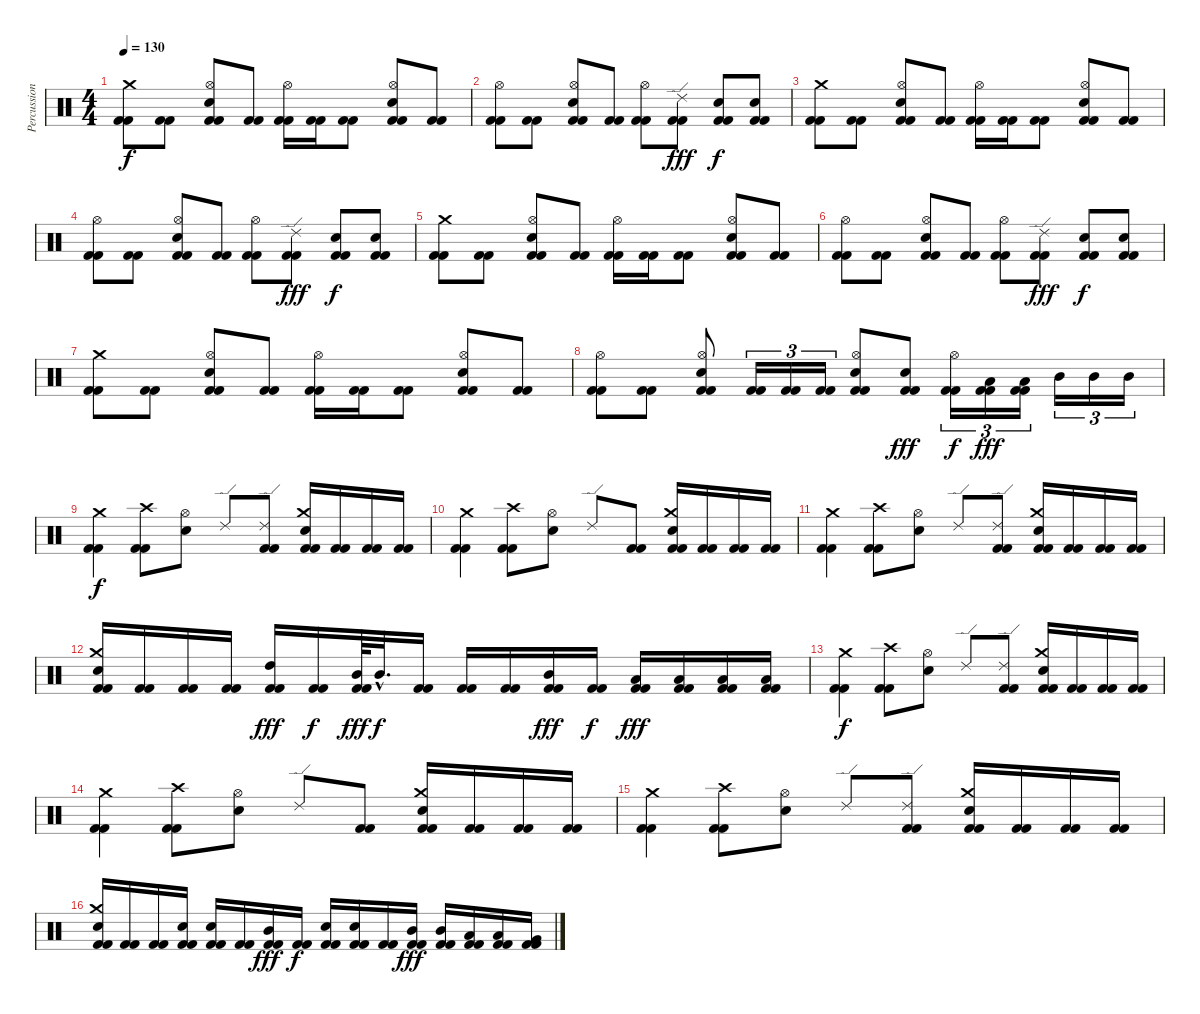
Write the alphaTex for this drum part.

\track ("Percussion" "Percussion") {instrument percussion}
\staff {score}
\articulation defaults
\ts (4 4)
\tempo 130
\clef neutral
\ks c
("Kick (hit) 2" "Kick (hit) 2" "Crash medium (hit)").8{dy f} ("Kick (hit) 2" "Kick (hit) 2").8 ("Kick (hit) 2" "Kick (hit) 2" "Hi-Hat (open)" "Electric Snare (hit)").8 ("Kick (hit) 2" "Kick (hit) 2").8 ("Kick (hit) 2" "Kick (hit) 2" "Hi-Hat (open)").16 ("Kick (hit) 2" "Kick (hit) 2").16 ("Kick (hit) 2" "Kick (hit) 2").8 ("Kick (hit) 2" "Kick (hit) 2" "Hi-Hat (open)" "Electric Snare (hit)").8 ("Kick (hit) 2" "Kick (hit) 2").8 |
("Kick (hit) 2" "Kick (hit) 2" "Hi-Hat (open)").8 ("Kick (hit) 2" "Kick (hit) 2").8 ("Kick (hit) 2" "Kick (hit) 2" "Hi-Hat (open)" "Electric Snare (hit)").8 ("Kick (hit) 2" "Kick (hit) 2").8 ("Kick (hit) 2" "Kick (hit) 2" "Hi-Hat (open)").8 ("Kick (hit) 2" "Kick (hit) 2" "Ride (edge) 2").8{dy fff} ("Kick (hit) 2" "Kick (hit) 2" "Electric Snare (hit)").8{dy f} ("Kick (hit) 2" "Kick (hit) 2" "Electric Snare (hit)").8 |
("Kick (hit) 2" "Kick (hit) 2" "Crash medium (hit)").8 ("Kick (hit) 2" "Kick (hit) 2").8 ("Kick (hit) 2" "Kick (hit) 2" "Hi-Hat (open)" "Electric Snare (hit)").8 ("Kick (hit) 2" "Kick (hit) 2").8 ("Kick (hit) 2" "Kick (hit) 2" "Hi-Hat (open)").16 ("Kick (hit) 2" "Kick (hit) 2").16 ("Kick (hit) 2" "Kick (hit) 2").8 ("Kick (hit) 2" "Kick (hit) 2" "Hi-Hat (open)" "Electric Snare (hit)").8 ("Kick (hit) 2" "Kick (hit) 2").8 |
("Kick (hit) 2" "Kick (hit) 2" "Hi-Hat (open)").8 ("Kick (hit) 2" "Kick (hit) 2").8 ("Kick (hit) 2" "Kick (hit) 2" "Hi-Hat (open)" "Electric Snare (hit)").8 ("Kick (hit) 2" "Kick (hit) 2").8 ("Kick (hit) 2" "Kick (hit) 2" "Hi-Hat (open)").8 ("Kick (hit) 2" "Kick (hit) 2" "Ride (edge) 2").8{dy fff} ("Kick (hit) 2" "Kick (hit) 2" "Electric Snare (hit)").8{dy f} ("Kick (hit) 2" "Kick (hit) 2" "Electric Snare (hit)").8 |
("Kick (hit) 2" "Kick (hit) 2" "Crash medium (hit)").8 ("Kick (hit) 2" "Kick (hit) 2").8 ("Kick (hit) 2" "Kick (hit) 2" "Hi-Hat (open)" "Electric Snare (hit)").8 ("Kick (hit) 2" "Kick (hit) 2").8 ("Kick (hit) 2" "Kick (hit) 2" "Hi-Hat (open)").16 ("Kick (hit) 2" "Kick (hit) 2").16 ("Kick (hit) 2" "Kick (hit) 2").8 ("Kick (hit) 2" "Kick (hit) 2" "Hi-Hat (open)" "Electric Snare (hit)").8 ("Kick (hit) 2" "Kick (hit) 2").8 |
("Kick (hit) 2" "Kick (hit) 2" "Hi-Hat (open)").8 ("Kick (hit) 2" "Kick (hit) 2").8 ("Kick (hit) 2" "Kick (hit) 2" "Hi-Hat (open)" "Electric Snare (hit)").8 ("Kick (hit) 2" "Kick (hit) 2").8 ("Kick (hit) 2" "Kick (hit) 2" "Hi-Hat (open)").8 ("Kick (hit) 2" "Kick (hit) 2" "Ride (edge) 2").8{dy fff} ("Kick (hit) 2" "Kick (hit) 2" "Electric Snare (hit)").8{dy f} ("Kick (hit) 2" "Kick (hit) 2" "Electric Snare (hit)").8 |
("Kick (hit) 2" "Kick (hit) 2" "Crash medium (hit)").8 ("Kick (hit) 2" "Kick (hit) 2").8 ("Kick (hit) 2" "Kick (hit) 2" "Hi-Hat (open)" "Electric Snare (hit)").8 ("Kick (hit) 2" "Kick (hit) 2").8 ("Kick (hit) 2" "Kick (hit) 2" "Hi-Hat (open)").16 ("Kick (hit) 2" "Kick (hit) 2").16 ("Kick (hit) 2" "Kick (hit) 2").8 ("Kick (hit) 2" "Kick (hit) 2" "Hi-Hat (open)" "Electric Snare (hit)").8 ("Kick (hit) 2" "Kick (hit) 2").8 |
("Kick (hit) 2" "Kick (hit) 2" "Hi-Hat (open)").8 ("Kick (hit) 2" "Kick (hit) 2").8 ("Kick (hit) 2" "Kick (hit) 2" "Hi-Hat (open)" "Electric Snare (hit)").8 ("Kick (hit) 2" "Kick (hit) 2").16{tu (3 2)} ("Kick (hit) 2" "Kick (hit) 2").16{tu (3 2)} ("Kick (hit) 2" "Kick (hit) 2").16{tu (3 2)} ("Kick (hit) 2" "Kick (hit) 2" "Electric Snare (hit)" "Hi-Hat (open)").8 ("Kick (hit) 2" "Kick (hit) 2" "Electric Snare (hit)").8{dy fff} ("Kick (hit) 2" "Kick (hit) 2" "Hi-Hat (open)").16{tu (3 2) dy f} ("Kick (hit) 2" "Kick (hit) 2" "Low Tom (hit)").16{tu (3 2) dy fff} ("Kick (hit) 2" "Kick (hit) 2" "Low Tom (hit)").16{tu (3 2)} "Mid Tom (hit)".16{tu (3 2)} "Mid Tom (hit)".16{tu (3 2)} "Mid Tom (hit)".16{tu (3 2)} |
("Kick (hit) 2" "Kick (hit) 2" "Crash medium (hit)").4{dy f} ("Kick (hit) 2" "Kick (hit) 2" "Crash high (hit)").8 ("Hi-Hat (open)" "Electric Snare (hit)").8 "Ride (edge) 2".8 ("Kick (hit) 2" "Kick (hit) 2" "Ride (edge) 2").8 ("Kick (hit) 2" "Kick (hit) 2" "Electric Snare (hit)" "Crash medium (hit)").16 ("Kick (hit) 2" "Kick (hit) 2").16 ("Kick (hit) 2" "Kick (hit) 2").16 ("Kick (hit) 2" "Kick (hit) 2").16 |
("Kick (hit) 2" "Kick (hit) 2" "Crash medium (hit)").4 ("Kick (hit) 2" "Kick (hit) 2" "Crash high (hit)").8 ("Hi-Hat (open)" "Electric Snare (hit)").8 "Ride (edge) 2".8 ("Kick (hit) 2" "Kick (hit) 2").8 ("Kick (hit) 2" "Kick (hit) 2" "Electric Snare (hit)" "Crash medium (hit)").16 ("Kick (hit) 2" "Kick (hit) 2").16 ("Kick (hit) 2" "Kick (hit) 2").16 ("Kick (hit) 2" "Kick (hit) 2").16 |
("Kick (hit) 2" "Kick (hit) 2" "Crash medium (hit)").4 ("Kick (hit) 2" "Kick (hit) 2" "Crash high (hit)").8 ("Hi-Hat (open)" "Electric Snare (hit)").8 "Ride (edge) 2".8 ("Kick (hit) 2" "Kick (hit) 2" "Ride (edge) 2").8 ("Kick (hit) 2" "Kick (hit) 2" "Electric Snare (hit)" "Crash medium (hit)").16 ("Kick (hit) 2" "Kick (hit) 2").16 ("Kick (hit) 2" "Kick (hit) 2").16 ("Kick (hit) 2" "Kick (hit) 2").16 |
("Kick (hit) 2" "Kick (hit) 2" "Electric Snare (hit)" "Crash medium (hit)").16 ("Kick (hit) 2" "Kick (hit) 2").16 ("Kick (hit) 2" "Kick (hit) 2").16 ("Kick (hit) 2" "Kick (hit) 2").16 ("Kick (hit) 2" "Kick (hit) 2" "High Tom (hit)").16{dy fff} ("Kick (hit) 2" "Kick (hit) 2").16{dy f} ("Kick (hit) 2" "Kick (hit) 2" "Mid Tom (hit)").64{dy fff} "Mid Tom (hit)"{hac}.32{d dy f} ("Kick (hit) 2" "Kick (hit) 2").16 ("Kick (hit) 2" "Kick (hit) 2").16 ("Kick (hit) 2" "Kick (hit) 2").16 ("Kick (hit) 2" "Kick (hit) 2" "Mid Tom (hit)").16{dy fff} ("Kick (hit) 2" "Kick (hit) 2").16{dy f} ("Kick (hit) 2" "Kick (hit) 2" "Low Tom (hit)").16{dy fff} ("Kick (hit) 2" "Kick (hit) 2" "Low Tom (hit)").16 ("Kick (hit) 2" "Kick (hit) 2" "Low Tom (hit)").16 ("Kick (hit) 2" "Kick (hit) 2" "Low Tom (hit)").16 |
("Kick (hit) 2" "Kick (hit) 2" "Crash medium (hit)").4{dy f} ("Kick (hit) 2" "Kick (hit) 2" "Crash high (hit)").8 ("Hi-Hat (open)" "Electric Snare (hit)").8 "Ride (edge) 2".8 ("Kick (hit) 2" "Kick (hit) 2" "Ride (edge) 2").8 ("Kick (hit) 2" "Kick (hit) 2" "Electric Snare (hit)" "Crash medium (hit)").16 ("Kick (hit) 2" "Kick (hit) 2").16 ("Kick (hit) 2" "Kick (hit) 2").16 ("Kick (hit) 2" "Kick (hit) 2").16 |
("Kick (hit) 2" "Kick (hit) 2" "Crash medium (hit)").4 ("Kick (hit) 2" "Kick (hit) 2" "Crash high (hit)").8 ("Hi-Hat (open)" "Electric Snare (hit)").8 "Ride (edge) 2".8 ("Kick (hit) 2" "Kick (hit) 2").8 ("Kick (hit) 2" "Kick (hit) 2" "Electric Snare (hit)" "Crash medium (hit)").16 ("Kick (hit) 2" "Kick (hit) 2").16 ("Kick (hit) 2" "Kick (hit) 2").16 ("Kick (hit) 2" "Kick (hit) 2").16 |
("Kick (hit) 2" "Kick (hit) 2" "Crash medium (hit)").4 ("Kick (hit) 2" "Kick (hit) 2" "Crash high (hit)").8 ("Hi-Hat (open)" "Electric Snare (hit)").8 "Ride (edge) 2".8 ("Kick (hit) 2" "Kick (hit) 2" "Ride (edge) 2").8 ("Kick (hit) 2" "Kick (hit) 2" "Electric Snare (hit)" "Crash medium (hit)").16 ("Kick (hit) 2" "Kick (hit) 2").16 ("Kick (hit) 2" "Kick (hit) 2").16 ("Kick (hit) 2" "Kick (hit) 2").16 |
("Kick (hit) 2" "Kick (hit) 2" "Electric Snare (hit)" "Crash medium (hit)").16 ("Kick (hit) 2" "Kick (hit) 2").16 ("Kick (hit) 2" "Kick (hit) 2").16 ("Kick (hit) 2" "Kick (hit) 2" "Electric Snare (hit)").16 ("Kick (hit) 2" "Kick (hit) 2" "Electric Snare (hit)").16 ("Kick (hit) 2" "Kick (hit) 2").16 ("Kick (hit) 2" "Kick (hit) 2" "Mid Tom (hit)").16{dy fff} ("Kick (hit) 2" "Kick (hit) 2").16{dy f} ("Kick (hit) 2" "Kick (hit) 2" "Electric Snare (hit)").16 ("Kick (hit) 2" "Kick (hit) 2" "Electric Snare (hit)").16 ("Kick (hit) 2" "Kick (hit) 2").16 ("Kick (hit) 2" "Kick (hit) 2" "Mid Tom (hit)").16{dy fff} ("Kick (hit) 2" "Kick (hit) 2" "Mid Tom (hit)").16 ("Kick (hit) 2" "Kick (hit) 2" "Low Tom (hit)").16 ("Kick (hit) 2" "Kick (hit) 2" "Low Tom (hit)").16 ("Kick (hit) 2" "Kick (hit) 2" "Very Low Tom (hit)").16
